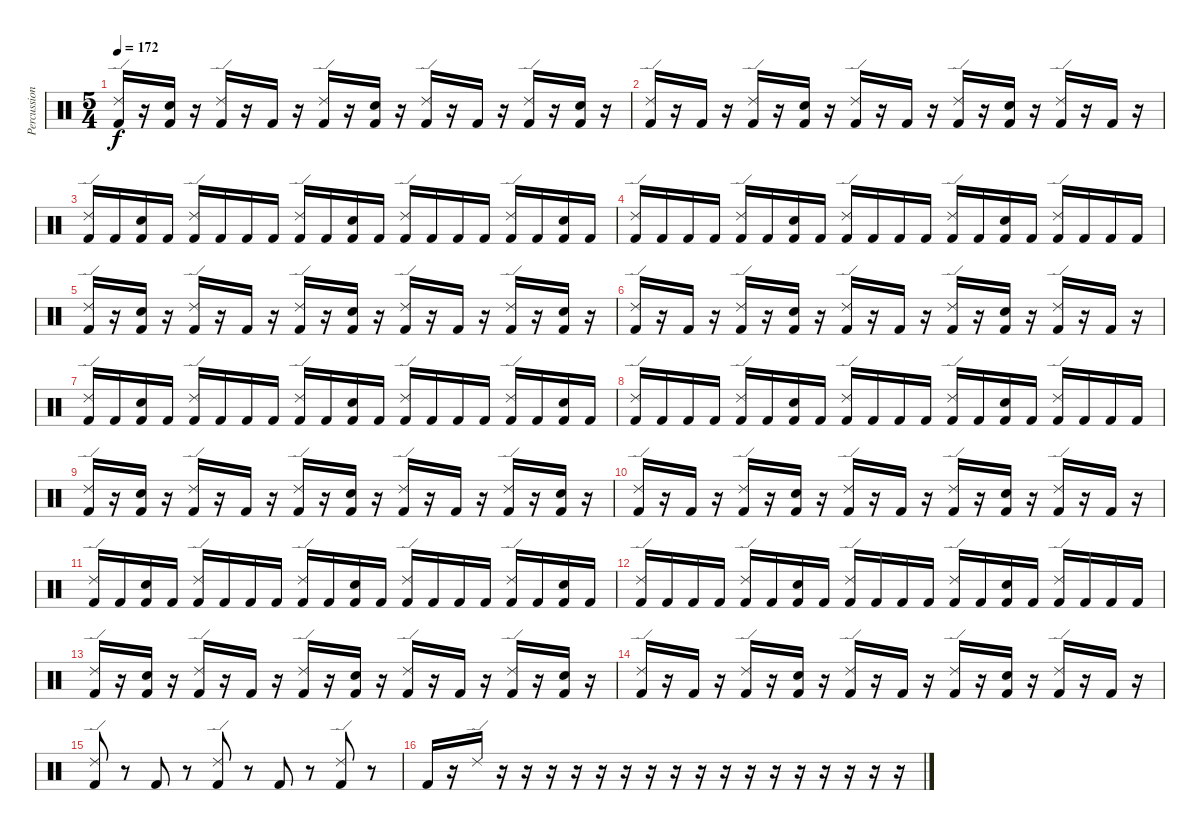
\track ("Percussion" "Percussion") {instrument percussion}
\staff {score}
\articulation defaults
\ts (5 4)
\tempo 172
\clef neutral
\ks c
("Ride (edge) 2" "Kick (hit) 2").16{dy f} r.16 ("Electric Snare (hit)" "Kick (hit) 2").16 r.16 ("Ride (edge) 2" "Kick (hit) 2").16 r.16 "Kick (hit) 2".16 r.16 ("Ride (edge) 2" "Kick (hit) 2").16 r.16 ("Electric Snare (hit)" "Kick (hit) 2").16 r.16 ("Ride (edge) 2" "Kick (hit) 2").16 r.16 "Kick (hit) 2".16 r.16 ("Ride (edge) 2" "Kick (hit) 2").16 r.16 ("Electric Snare (hit)" "Kick (hit) 2").16 r.16 |
("Ride (edge) 2" "Kick (hit) 2").16 r.16 "Kick (hit) 2".16 r.16 ("Ride (edge) 2" "Kick (hit) 2").16 r.16 ("Electric Snare (hit)" "Kick (hit) 2").16 r.16 ("Ride (edge) 2" "Kick (hit) 2").16 r.16 "Kick (hit) 2".16 r.16 ("Ride (edge) 2" "Kick (hit) 2").16 r.16 ("Electric Snare (hit)" "Kick (hit) 2").16 r.16 ("Ride (edge) 2" "Kick (hit) 2").16 r.16 "Kick (hit) 2".16 r.16 |
("Ride (edge) 2" "Kick (hit) 2").16 "Kick (hit) 2".16 ("Electric Snare (hit)" "Kick (hit) 2").16 "Kick (hit) 2".16 ("Ride (edge) 2" "Kick (hit) 2").16 "Kick (hit) 2".16 "Kick (hit) 2".16 "Kick (hit) 2".16 ("Ride (edge) 2" "Kick (hit) 2").16 "Kick (hit) 2".16 ("Electric Snare (hit)" "Kick (hit) 2").16 "Kick (hit) 2".16 ("Ride (edge) 2" "Kick (hit) 2").16 "Kick (hit) 2".16 "Kick (hit) 2".16 "Kick (hit) 2".16 ("Ride (edge) 2" "Kick (hit) 2").16 "Kick (hit) 2".16 ("Electric Snare (hit)" "Kick (hit) 2").16 "Kick (hit) 2".16 |
("Ride (edge) 2" "Kick (hit) 2").16 "Kick (hit) 2".16 "Kick (hit) 2".16 "Kick (hit) 2".16 ("Ride (edge) 2" "Kick (hit) 2").16 "Kick (hit) 2".16 ("Electric Snare (hit)" "Kick (hit) 2").16 "Kick (hit) 2".16 ("Ride (edge) 2" "Kick (hit) 2").16 "Kick (hit) 2".16 "Kick (hit) 2".16 "Kick (hit) 2".16 ("Ride (edge) 2" "Kick (hit) 2").16 "Kick (hit) 2".16 ("Electric Snare (hit)" "Kick (hit) 2").16 "Kick (hit) 2".16 ("Ride (edge) 2" "Kick (hit) 2").16 "Kick (hit) 2".16 "Kick (hit) 2".16 "Kick (hit) 2".16 |
("Ride (edge) 2" "Kick (hit) 2").16 r.16 ("Electric Snare (hit)" "Kick (hit) 2").16 r.16 ("Ride (edge) 2" "Kick (hit) 2").16 r.16 "Kick (hit) 2".16 r.16 ("Ride (edge) 2" "Kick (hit) 2").16 r.16 ("Electric Snare (hit)" "Kick (hit) 2").16 r.16 ("Ride (edge) 2" "Kick (hit) 2").16 r.16 "Kick (hit) 2".16 r.16 ("Ride (edge) 2" "Kick (hit) 2").16 r.16 ("Electric Snare (hit)" "Kick (hit) 2").16 r.16 |
("Ride (edge) 2" "Kick (hit) 2").16 r.16 "Kick (hit) 2".16 r.16 ("Ride (edge) 2" "Kick (hit) 2").16 r.16 ("Electric Snare (hit)" "Kick (hit) 2").16 r.16 ("Ride (edge) 2" "Kick (hit) 2").16 r.16 "Kick (hit) 2".16 r.16 ("Ride (edge) 2" "Kick (hit) 2").16 r.16 ("Electric Snare (hit)" "Kick (hit) 2").16 r.16 ("Ride (edge) 2" "Kick (hit) 2").16 r.16 "Kick (hit) 2".16 r.16 |
("Ride (edge) 2" "Kick (hit) 2").16 "Kick (hit) 2".16 ("Electric Snare (hit)" "Kick (hit) 2").16 "Kick (hit) 2".16 ("Ride (edge) 2" "Kick (hit) 2").16 "Kick (hit) 2".16 "Kick (hit) 2".16 "Kick (hit) 2".16 ("Ride (edge) 2" "Kick (hit) 2").16 "Kick (hit) 2".16 ("Electric Snare (hit)" "Kick (hit) 2").16 "Kick (hit) 2".16 ("Ride (edge) 2" "Kick (hit) 2").16 "Kick (hit) 2".16 "Kick (hit) 2".16 "Kick (hit) 2".16 ("Ride (edge) 2" "Kick (hit) 2").16 "Kick (hit) 2".16 ("Electric Snare (hit)" "Kick (hit) 2").16 "Kick (hit) 2".16 |
("Ride (edge) 2" "Kick (hit) 2").16 "Kick (hit) 2".16 "Kick (hit) 2".16 "Kick (hit) 2".16 ("Ride (edge) 2" "Kick (hit) 2").16 "Kick (hit) 2".16 ("Electric Snare (hit)" "Kick (hit) 2").16 "Kick (hit) 2".16 ("Ride (edge) 2" "Kick (hit) 2").16 "Kick (hit) 2".16 "Kick (hit) 2".16 "Kick (hit) 2".16 ("Ride (edge) 2" "Kick (hit) 2").16 "Kick (hit) 2".16 ("Electric Snare (hit)" "Kick (hit) 2").16 "Kick (hit) 2".16 ("Ride (edge) 2" "Kick (hit) 2").16 "Kick (hit) 2".16 "Kick (hit) 2".16 "Kick (hit) 2".16 |
("Ride (edge) 2" "Kick (hit) 2").16 r.16 ("Electric Snare (hit)" "Kick (hit) 2").16 r.16 ("Ride (edge) 2" "Kick (hit) 2").16 r.16 "Kick (hit) 2".16 r.16 ("Ride (edge) 2" "Kick (hit) 2").16 r.16 ("Electric Snare (hit)" "Kick (hit) 2").16 r.16 ("Ride (edge) 2" "Kick (hit) 2").16 r.16 "Kick (hit) 2".16 r.16 ("Ride (edge) 2" "Kick (hit) 2").16 r.16 ("Electric Snare (hit)" "Kick (hit) 2").16 r.16 |
("Ride (edge) 2" "Kick (hit) 2").16 r.16 "Kick (hit) 2".16 r.16 ("Ride (edge) 2" "Kick (hit) 2").16 r.16 ("Electric Snare (hit)" "Kick (hit) 2").16 r.16 ("Ride (edge) 2" "Kick (hit) 2").16 r.16 "Kick (hit) 2".16 r.16 ("Ride (edge) 2" "Kick (hit) 2").16 r.16 ("Electric Snare (hit)" "Kick (hit) 2").16 r.16 ("Ride (edge) 2" "Kick (hit) 2").16 r.16 "Kick (hit) 2".16 r.16 |
("Ride (edge) 2" "Kick (hit) 2").16 "Kick (hit) 2".16 ("Electric Snare (hit)" "Kick (hit) 2").16 "Kick (hit) 2".16 ("Ride (edge) 2" "Kick (hit) 2").16 "Kick (hit) 2".16 "Kick (hit) 2".16 "Kick (hit) 2".16 ("Ride (edge) 2" "Kick (hit) 2").16 "Kick (hit) 2".16 ("Electric Snare (hit)" "Kick (hit) 2").16 "Kick (hit) 2".16 ("Ride (edge) 2" "Kick (hit) 2").16 "Kick (hit) 2".16 "Kick (hit) 2".16 "Kick (hit) 2".16 ("Ride (edge) 2" "Kick (hit) 2").16 "Kick (hit) 2".16 ("Electric Snare (hit)" "Kick (hit) 2").16 "Kick (hit) 2".16 |
("Ride (edge) 2" "Kick (hit) 2").16 "Kick (hit) 2".16 "Kick (hit) 2".16 "Kick (hit) 2".16 ("Ride (edge) 2" "Kick (hit) 2").16 "Kick (hit) 2".16 ("Electric Snare (hit)" "Kick (hit) 2").16 "Kick (hit) 2".16 ("Ride (edge) 2" "Kick (hit) 2").16 "Kick (hit) 2".16 "Kick (hit) 2".16 "Kick (hit) 2".16 ("Ride (edge) 2" "Kick (hit) 2").16 "Kick (hit) 2".16 ("Electric Snare (hit)" "Kick (hit) 2").16 "Kick (hit) 2".16 ("Ride (edge) 2" "Kick (hit) 2").16 "Kick (hit) 2".16 "Kick (hit) 2".16 "Kick (hit) 2".16 |
("Ride (edge) 2" "Kick (hit) 2").16 r.16 ("Electric Snare (hit)" "Kick (hit) 2").16 r.16 ("Ride (edge) 2" "Kick (hit) 2").16 r.16 "Kick (hit) 2".16 r.16 ("Ride (edge) 2" "Kick (hit) 2").16 r.16 ("Electric Snare (hit)" "Kick (hit) 2").16 r.16 ("Ride (edge) 2" "Kick (hit) 2").16 r.16 "Kick (hit) 2".16 r.16 ("Ride (edge) 2" "Kick (hit) 2").16 r.16 ("Electric Snare (hit)" "Kick (hit) 2").16 r.16 |
("Ride (edge) 2" "Kick (hit) 2").16 r.16 "Kick (hit) 2".16 r.16 ("Ride (edge) 2" "Kick (hit) 2").16 r.16 ("Electric Snare (hit)" "Kick (hit) 2").16 r.16 ("Ride (edge) 2" "Kick (hit) 2").16 r.16 "Kick (hit) 2".16 r.16 ("Ride (edge) 2" "Kick (hit) 2").16 r.16 ("Electric Snare (hit)" "Kick (hit) 2").16 r.16 ("Ride (edge) 2" "Kick (hit) 2").16 r.16 "Kick (hit) 2".16 r.16 |
("Ride (edge) 2" "Kick (hit) 2").8 r.8 "Kick (hit) 2".8 r.8 ("Ride (edge) 2" "Kick (hit) 2").8 r.8 "Kick (hit) 2".8 r.8 ("Ride (edge) 2" "Kick (hit) 2").8 r.8 |
"Kick (hit) 2".16 r.16 "Ride (edge) 2".16 r.16 r.16 r.16 r.16 r.16 r.16 r.16 r.16 r.16 r.16 r.16 r.16 r.16 r.16 r.16 r.16 r.16
